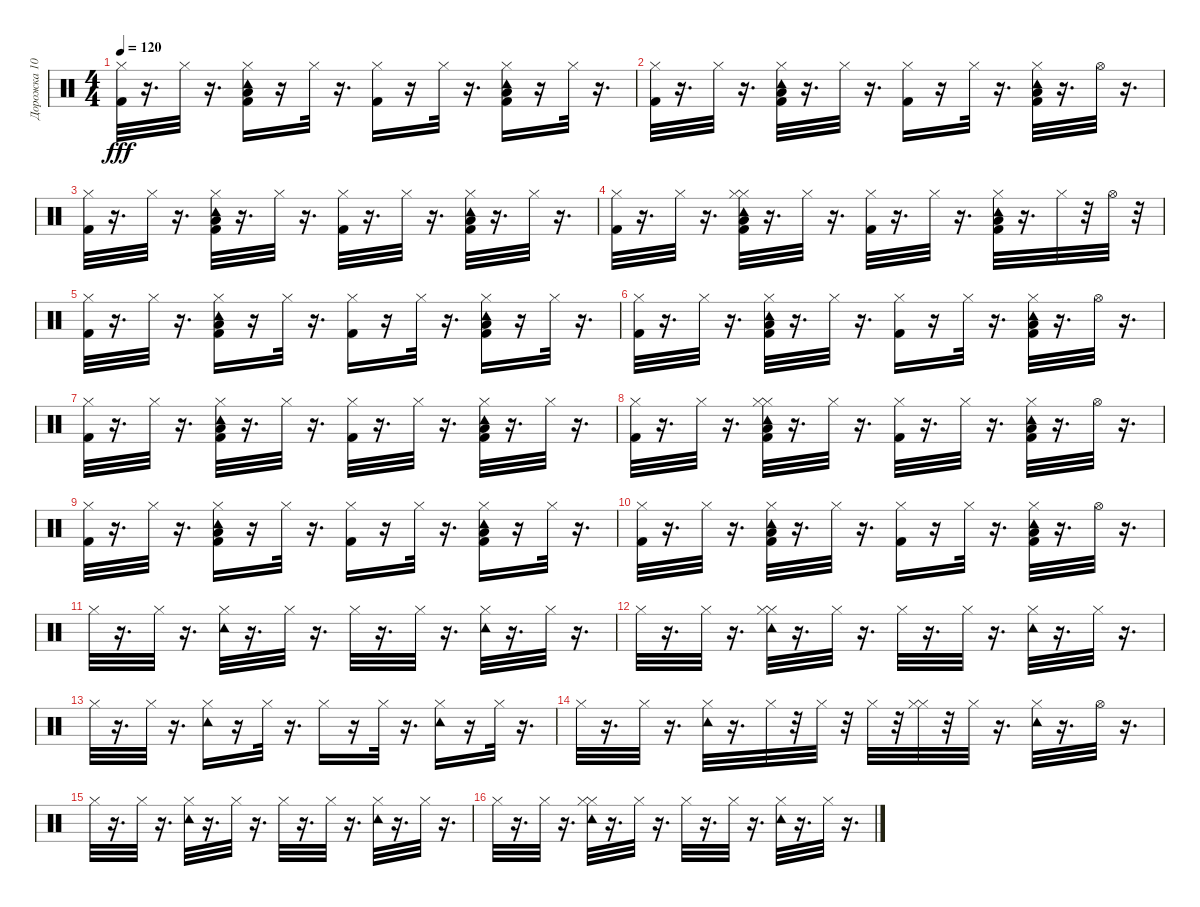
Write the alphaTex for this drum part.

\track ("Дорожка 10" "Дорожка 10") {instrument percussion}
\staff {score}
\articulation defaults
\ts (4 4)
\tempo 120
\clef neutral
\ks c
("Kick (hit) 2" "Hi-Hat (closed)").32{dy fff} r.16{d} "Hi-Hat (closed)".32 r.16{d} ("Low Floor Tom (hit)" "Tambourine (hit)" "Kick (hit) 2" "Hi-Hat (closed)").16 r.16 "Hi-Hat (closed)".32 r.16{d} ("Kick (hit) 2" "Hi-Hat (closed)").16 r.16 "Hi-Hat (closed)".32 r.16{d} ("Low Floor Tom (hit)" "Tambourine (hit)" "Kick (hit) 2" "Hi-Hat (closed)").16 r.16 "Hi-Hat (closed)".32 r.16{d} |
("Kick (hit) 2" "Hi-Hat (closed)").32 r.16{d} "Hi-Hat (closed)".32 r.16{d} ("Low Floor Tom (hit)" "Tambourine (hit)" "Kick (hit) 2" "Hi-Hat (closed)").32 r.16{d} "Hi-Hat (closed)".32 r.16{d} ("Kick (hit) 2" "Hi-Hat (closed)").16 r.16 "Hi-Hat (closed)".32 r.16{d} ("Tambourine (hit)" "Kick (hit) 2" "Hi-Hat (closed)" "Low Floor Tom (hit)").32 r.16{d} "Hi-Hat (open)".32 r.16{d} |
("Kick (hit) 2" "Hi-Hat (closed)").32 r.16{d} "Hi-Hat (closed)".32 r.16{d} ("Tambourine (hit)" "Kick (hit) 2" "Hi-Hat (closed)" "Low Floor Tom (hit)").32 r.16{d} "Hi-Hat (closed)".32 r.16{d} ("Kick (hit) 2" "Hi-Hat (closed)").32 r.16{d} "Hi-Hat (closed)".32 r.16{d} ("Tambourine (hit)" "Kick (hit) 2" "Hi-Hat (closed)" "Low Floor Tom (hit)").32 r.16{d} "Hi-Hat (closed)".32 r.16{d} |
("Kick (hit) 2" "Hi-Hat (closed)").32 r.16{d} "Hi-Hat (closed)".32 r.16{d} ("Low Floor Tom (hit)" "Tambourine (hit)" "Kick (hit) 2" "Hi-Hat (closed)" "Hi-Hat (closed)").32 r.16{d} "Hi-Hat (closed)".32 r.16{d} ("Kick (hit) 2" "Hi-Hat (closed)").32 r.16{d} "Hi-Hat (closed)".32 r.16{d} ("Low Floor Tom (hit)" "Tambourine (hit)" "Kick (hit) 2" "Hi-Hat (closed)").32 r.16{d} "Hi-Hat (closed)".32 r.32 "Hi-Hat (open)".32 r.32 |
("Kick (hit) 2" "Hi-Hat (closed)").32 r.16{d} "Hi-Hat (closed)".32 r.16{d} ("Low Floor Tom (hit)" "Tambourine (hit)" "Kick (hit) 2" "Hi-Hat (closed)").16 r.16 "Hi-Hat (closed)".32 r.16{d} ("Kick (hit) 2" "Hi-Hat (closed)").16 r.16 "Hi-Hat (closed)".32 r.16{d} ("Low Floor Tom (hit)" "Tambourine (hit)" "Kick (hit) 2" "Hi-Hat (closed)").16 r.16 "Hi-Hat (closed)".32 r.16{d} |
("Kick (hit) 2" "Hi-Hat (closed)").32 r.16{d} "Hi-Hat (closed)".32 r.16{d} ("Low Floor Tom (hit)" "Tambourine (hit)" "Kick (hit) 2" "Hi-Hat (closed)").32 r.16{d} "Hi-Hat (closed)".32 r.16{d} ("Kick (hit) 2" "Hi-Hat (closed)").16 r.16 "Hi-Hat (closed)".32 r.16{d} ("Tambourine (hit)" "Kick (hit) 2" "Hi-Hat (closed)" "Low Floor Tom (hit)").32 r.16{d} "Hi-Hat (open)".32 r.16{d} |
("Kick (hit) 2" "Hi-Hat (closed)").32 r.16{d} "Hi-Hat (closed)".32 r.16{d} ("Tambourine (hit)" "Kick (hit) 2" "Hi-Hat (closed)" "Low Floor Tom (hit)").32 r.16{d} "Hi-Hat (closed)".32 r.16{d} ("Kick (hit) 2" "Hi-Hat (closed)").32 r.16{d} "Hi-Hat (closed)".32 r.16{d} ("Tambourine (hit)" "Kick (hit) 2" "Hi-Hat (closed)" "Low Floor Tom (hit)").32 r.16{d} "Hi-Hat (closed)".32 r.16{d} |
("Kick (hit) 2" "Hi-Hat (closed)").32 r.16{d} "Hi-Hat (closed)".32 r.16{d} ("Low Floor Tom (hit)" "Tambourine (hit)" "Kick (hit) 2" "Hi-Hat (closed)" "Hi-Hat (closed)").32 r.16{d} "Hi-Hat (closed)".32 r.16{d} ("Kick (hit) 2" "Hi-Hat (closed)").32 r.16{d} "Hi-Hat (closed)".32 r.16{d} ("Low Floor Tom (hit)" "Tambourine (hit)" "Kick (hit) 2" "Hi-Hat (closed)").32 r.16{d} "Hi-Hat (open)".32 r.16{d} |
("Kick (hit) 2" "Hi-Hat (closed)").32 r.16{d} "Hi-Hat (closed)".32 r.16{d} ("Low Floor Tom (hit)" "Tambourine (hit)" "Kick (hit) 2" "Hi-Hat (closed)").16 r.16 "Hi-Hat (closed)".32 r.16{d} ("Kick (hit) 2" "Hi-Hat (closed)").16 r.16 "Hi-Hat (closed)".32 r.16{d} ("Low Floor Tom (hit)" "Tambourine (hit)" "Kick (hit) 2" "Hi-Hat (closed)").16 r.16 "Hi-Hat (closed)".32 r.16{d} |
("Kick (hit) 2" "Hi-Hat (closed)").32 r.16{d} "Hi-Hat (closed)".32 r.16{d} ("Low Floor Tom (hit)" "Tambourine (hit)" "Kick (hit) 2" "Hi-Hat (closed)").32 r.16{d} "Hi-Hat (closed)".32 r.16{d} ("Kick (hit) 2" "Hi-Hat (closed)").16 r.16 "Hi-Hat (closed)".32 r.16{d} ("Tambourine (hit)" "Kick (hit) 2" "Hi-Hat (closed)" "Low Floor Tom (hit)").32 r.16{d} "Hi-Hat (open)".32 r.16{d} |
"Hi-Hat (closed)".32 r.16{d} "Hi-Hat (closed)".32 r.16{d} ("Tambourine (hit)" "Hi-Hat (closed)").32 r.16{d} "Hi-Hat (closed)".32 r.16{d} "Hi-Hat (closed)".32 r.16{d} "Hi-Hat (closed)".32 r.16{d} ("Tambourine (hit)" "Hi-Hat (closed)").32 r.16{d} "Hi-Hat (closed)".32 r.16{d} |
"Hi-Hat (closed)".32 r.16{d} "Hi-Hat (closed)".32 r.16{d} ("Tambourine (hit)" "Hi-Hat (closed)" "Hi-Hat (closed)").32 r.16{d} "Hi-Hat (closed)".32 r.16{d} "Hi-Hat (closed)".32 r.16{d} "Hi-Hat (closed)".32 r.16{d} ("Hi-Hat (closed)" "Tambourine (hit)").32 r.16{d} "Hi-Hat (closed)".32 r.16{d} |
"Hi-Hat (closed)".32 r.16{d} "Hi-Hat (closed)".32 r.16{d} ("Tambourine (hit)" "Hi-Hat (closed)").16 r.16 "Hi-Hat (closed)".32 r.16{d} "Hi-Hat (closed)".16 r.16 "Hi-Hat (closed)".32 r.16{d} ("Hi-Hat (closed)" "Tambourine (hit)").16 r.16 "Hi-Hat (closed)".32 r.16{d} |
"Hi-Hat (closed)".32 r.16{d} "Hi-Hat (closed)".32 r.16{d} ("Tambourine (hit)" "Hi-Hat (closed)").32 r.16{d} "Hi-Hat (closed)".32 r.32 "Hi-Hat (closed)".32 r.32 "Hi-Hat (closed)".32 r.32 ("Hi-Hat (closed)" "Hi-Hat (closed)").32 r.32 "Hi-Hat (closed)".32 r.16{d} ("Tambourine (hit)" "Hi-Hat (closed)").32 r.16{d} "Hi-Hat (open)".32 r.16{d} |
"Hi-Hat (closed)".32 r.16{d} "Hi-Hat (closed)".32 r.16{d} ("Tambourine (hit)" "Hi-Hat (closed)").32 r.16{d} "Hi-Hat (closed)".32 r.16{d} "Hi-Hat (closed)".32 r.16{d} "Hi-Hat (closed)".32 r.16{d} ("Tambourine (hit)" "Hi-Hat (closed)").32 r.16{d} "Hi-Hat (closed)".32 r.16{d} |
"Hi-Hat (closed)".32 r.16{d} "Hi-Hat (closed)".32 r.16{d} ("Tambourine (hit)" "Hi-Hat (closed)" "Hi-Hat (closed)").32 r.16{d} "Hi-Hat (closed)".32 r.16{d} "Hi-Hat (closed)".32 r.16{d} "Hi-Hat (closed)".32 r.16{d} ("Hi-Hat (closed)" "Tambourine (hit)").32 r.16{d} "Hi-Hat (closed)".32 r.16{d}
